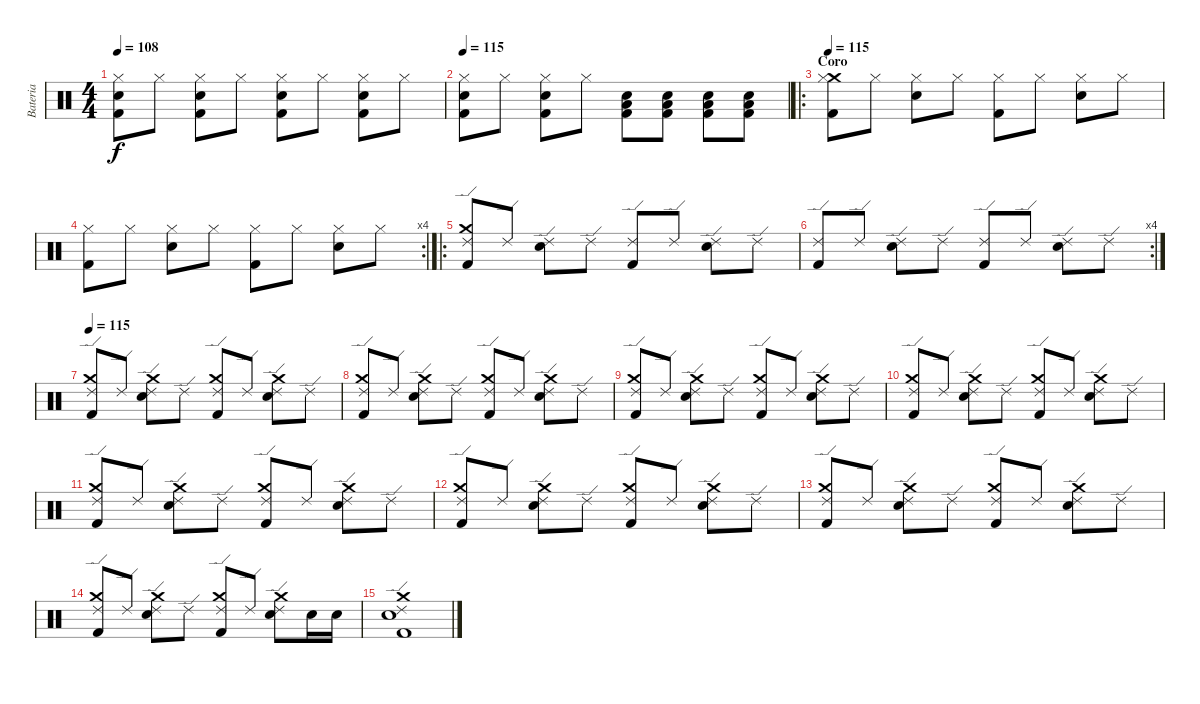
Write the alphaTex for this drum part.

\track ("Bateria" "Bateria") {instrument percussion}
\staff {score}
\articulation defaults
\ts (4 4)
\tempo 108
\clef neutral
\ks c
("Hi-Hat (closed)" "Electric Snare (hit)" "Kick (hit) 2").8{dy f} "Hi-Hat (closed)".8 ("Hi-Hat (closed)" "Electric Snare (hit)" "Kick (hit) 2").8 "Hi-Hat (closed)".8 ("Hi-Hat (closed)" "Electric Snare (hit)" "Kick (hit) 2").8 "Hi-Hat (closed)".8 ("Hi-Hat (closed)" "Electric Snare (hit)" "Kick (hit) 2").8 "Hi-Hat (closed)".8 |
\tempo 115
("Hi-Hat (closed)" "Electric Snare (hit)" "Kick (hit) 2").8 "Hi-Hat (closed)".8 ("Hi-Hat (closed)" "Electric Snare (hit)" "Kick (hit) 2").8 "Hi-Hat (closed)".8 ("Low Tom (hit)" "Electric Snare (hit)" "Kick (hit) 2").8 ("Low Tom (hit)" "Electric Snare (hit)" "Kick (hit) 2").8 ("Low Tom (hit)" "Electric Snare (hit)" "Kick (hit) 2").8 ("Low Tom (hit)" "Electric Snare (hit)" "Kick (hit) 2").8 |
\ro
\section ("" "Coro")
\tempo 115
("Crash medium (hit)" "Hi-Hat (closed)" "Kick (hit) 2").8 "Hi-Hat (closed)".8 ("Hi-Hat (closed)" "Electric Snare (hit)").8 "Hi-Hat (closed)".8 ("Hi-Hat (closed)" "Kick (hit) 2").8 "Hi-Hat (closed)".8 ("Hi-Hat (closed)" "Electric Snare (hit)").8 "Hi-Hat (closed)".8 |
\rc 4
("Hi-Hat (closed)" "Kick (hit) 2").8 "Hi-Hat (closed)".8 ("Hi-Hat (closed)" "Electric Snare (hit)").8 "Hi-Hat (closed)".8 ("Hi-Hat (closed)" "Kick (hit) 2").8 "Hi-Hat (closed)".8 ("Hi-Hat (closed)" "Electric Snare (hit)").8 "Hi-Hat (closed)".8 |
\ro
("Crash medium (hit)" "Ride (edge) 2" "Kick (hit) 2").8 "Ride (edge) 2".8 ("Ride (edge) 2" "Electric Snare (hit)").8 "Ride (edge) 2".8 ("Ride (edge) 2" "Kick (hit) 2").8 "Ride (edge) 2".8 ("Ride (edge) 2" "Electric Snare (hit)").8 "Ride (edge) 2".8 |
\rc 4
("Ride (edge) 2" "Kick (hit) 2").8 "Ride (edge) 2".8 ("Ride (edge) 2" "Electric Snare (hit)").8 "Ride (edge) 2".8 ("Ride (edge) 2" "Kick (hit) 2").8 "Ride (edge) 2".8 ("Ride (edge) 2" "Electric Snare (hit)").8 "Ride (edge) 2".8 |
\tempo 115
("Crash medium (hit)" "Ride (edge) 2" "Kick (hit) 2").8 "Ride (edge) 2".8 ("Crash medium (hit)" "Ride (edge) 2" "Electric Snare (hit)").8 "Ride (edge) 2".8 ("Crash medium (hit)" "Ride (edge) 2" "Kick (hit) 2").8 "Ride (edge) 2".8 ("Crash medium (hit)" "Ride (edge) 2" "Electric Snare (hit)").8 "Ride (edge) 2".8 |
("Crash medium (hit)" "Ride (edge) 2" "Kick (hit) 2").8 "Ride (edge) 2".8 ("Crash medium (hit)" "Ride (edge) 2" "Electric Snare (hit)").8 "Ride (edge) 2".8 ("Crash medium (hit)" "Ride (edge) 2" "Kick (hit) 2").8 "Ride (edge) 2".8 ("Crash medium (hit)" "Ride (edge) 2" "Electric Snare (hit)").8 "Ride (edge) 2".8 |
("Crash medium (hit)" "Ride (edge) 2" "Kick (hit) 2").8 "Ride (edge) 2".8 ("Crash medium (hit)" "Ride (edge) 2" "Electric Snare (hit)").8 "Ride (edge) 2".8 ("Crash medium (hit)" "Ride (edge) 2" "Kick (hit) 2").8 "Ride (edge) 2".8 ("Crash medium (hit)" "Ride (edge) 2" "Electric Snare (hit)").8 "Ride (edge) 2".8 |
("Crash medium (hit)" "Ride (edge) 2" "Kick (hit) 2").8 "Ride (edge) 2".8 ("Crash medium (hit)" "Ride (edge) 2" "Electric Snare (hit)").8 "Ride (edge) 2".8 ("Crash medium (hit)" "Ride (edge) 2" "Kick (hit) 2").8 "Ride (edge) 2".8 ("Crash medium (hit)" "Ride (edge) 2" "Electric Snare (hit)").8 "Ride (edge) 2".8 |
("Crash medium (hit)" "Ride (edge) 2" "Kick (hit) 2").8 "Ride (edge) 2".8 ("Crash medium (hit)" "Ride (edge) 2" "Electric Snare (hit)").8 "Ride (edge) 2".8 ("Crash medium (hit)" "Ride (edge) 2" "Kick (hit) 2").8 "Ride (edge) 2".8 ("Crash medium (hit)" "Ride (edge) 2" "Electric Snare (hit)").8 "Ride (edge) 2".8 |
("Crash medium (hit)" "Ride (edge) 2" "Kick (hit) 2").8 "Ride (edge) 2".8 ("Crash medium (hit)" "Ride (edge) 2" "Electric Snare (hit)").8 "Ride (edge) 2".8 ("Crash medium (hit)" "Ride (edge) 2" "Kick (hit) 2").8 "Ride (edge) 2".8 ("Crash medium (hit)" "Ride (edge) 2" "Electric Snare (hit)").8 "Ride (edge) 2".8 |
("Crash medium (hit)" "Ride (edge) 2" "Kick (hit) 2").8 "Ride (edge) 2".8 ("Crash medium (hit)" "Ride (edge) 2" "Electric Snare (hit)").8 "Ride (edge) 2".8 ("Crash medium (hit)" "Ride (edge) 2" "Kick (hit) 2").8 "Ride (edge) 2".8 ("Crash medium (hit)" "Ride (edge) 2" "Electric Snare (hit)").8 "Ride (edge) 2".8 |
("Crash medium (hit)" "Ride (edge) 2" "Kick (hit) 2").8 "Ride (edge) 2".8 ("Crash medium (hit)" "Ride (edge) 2" "Electric Snare (hit)").8 "Ride (edge) 2".8 ("Crash medium (hit)" "Ride (edge) 2" "Kick (hit) 2").8 "Ride (edge) 2".8 ("Crash medium (hit)" "Ride (edge) 2" "Electric Snare (hit)").8 "Electric Snare (hit)".16 "Electric Snare (hit)".16 |
("Crash medium (hit)" "Ride (edge) 2" "Electric Snare (hit)" "Kick (hit) 2").1
